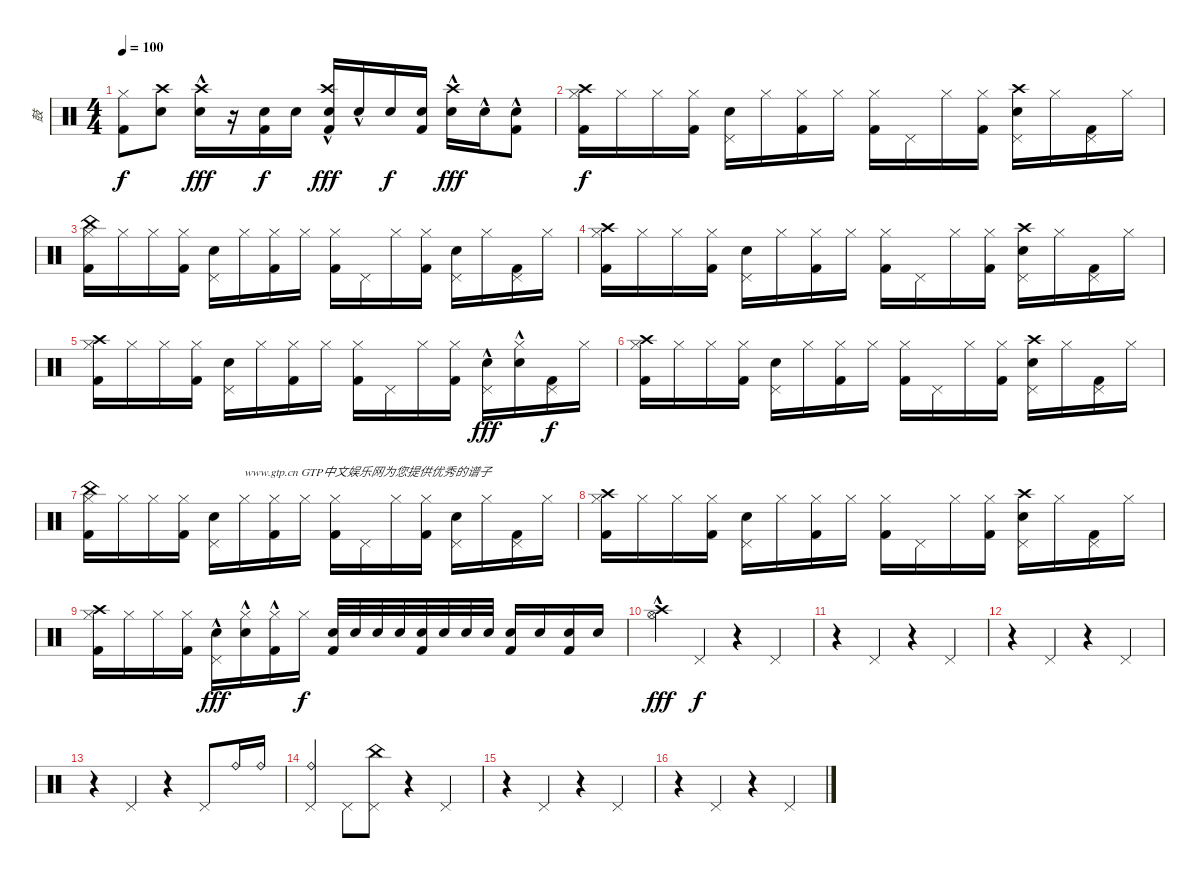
\track ("鼓" "鼓") {instrument percussion}
\staff {score}
\articulation defaults
\ts (4 4)
\tempo 100
\clef neutral
\ks c
("Hi-Hat (closed)" "Kick (hit) 2").8{dy f} ("Crash high (hit)" "Electric Snare (hit)").8 ("Crash high (hit)" "Electric Snare (hit)"{hac}).16{dy fff} r.16 ("Electric Snare (hit)" "Kick (hit) 2").16{dy f} "Electric Snare (hit)".16 ("Crash high (hit)" "Electric Snare (hit)"{hac} "Kick (hit) 2").16{dy fff} "Electric Snare (hit)"{hac}.16 "Snare (hit) 2".16{dy f} ("Electric Snare (hit)" "Kick (hit) 2").16 ("Crash high (hit)" "Electric Snare (hit)"{hac}).16{dy fff} "Snare (hit) 2"{hac}.16 ("Snare (hit) 2"{hac} "Kick (hit) 2").8 |
("Crash high (hit)" "Hi-Hat (closed)" "Kick (hit) 2").16{dy f} "Hi-Hat (closed)".16 "Hi-Hat (closed)".16 ("Hi-Hat (closed)" "Kick (hit) 2").16 ("Pedal Hi-Hat (hit)" "Electric Snare (hit)").16 "Hi-Hat (closed)".16 ("Hi-Hat (closed)" "Kick (hit) 2").16 "Hi-Hat (closed)".16 ("Hi-Hat (closed)" "Kick (hit) 2").16 "Pedal Hi-Hat (hit)".16 "Hi-Hat (closed)".16 ("Hi-Hat (closed)" "Kick (hit) 2").16 ("Crash high (hit)" "Pedal Hi-Hat (hit)" "Electric Snare (hit)").16 "Hi-Hat (closed)".16 ("Pedal Hi-Hat (hit)" "Kick (hit) 2").16 "Hi-Hat (closed)".16 |
("China (hit)" "Hi-Hat (closed)" "Kick (hit) 2").16 "Hi-Hat (closed)".16 "Hi-Hat (closed)".16 ("Hi-Hat (closed)" "Kick (hit) 2").16 ("Pedal Hi-Hat (hit)" "Electric Snare (hit)").16 "Hi-Hat (closed)".16 ("Hi-Hat (closed)" "Kick (hit) 2").16 "Hi-Hat (closed)".16 ("Hi-Hat (closed)" "Kick (hit) 2").16 "Pedal Hi-Hat (hit)".16 "Hi-Hat (closed)".16 ("Hi-Hat (closed)" "Kick (hit) 2").16 ("Pedal Hi-Hat (hit)" "Electric Snare (hit)").16 "Hi-Hat (closed)".16 ("Pedal Hi-Hat (hit)" "Kick (hit) 2").16 "Hi-Hat (closed)".16 |
("Crash high (hit)" "Hi-Hat (closed)" "Kick (hit) 2").16 "Hi-Hat (closed)".16 "Hi-Hat (closed)".16 ("Hi-Hat (closed)" "Kick (hit) 2").16 ("Pedal Hi-Hat (hit)" "Electric Snare (hit)").16 "Hi-Hat (closed)".16 ("Hi-Hat (closed)" "Kick (hit) 2").16 "Hi-Hat (closed)".16 ("Hi-Hat (closed)" "Kick (hit) 2").16 "Pedal Hi-Hat (hit)".16 "Hi-Hat (closed)".16 ("Hi-Hat (closed)" "Kick (hit) 2").16 ("Crash high (hit)" "Pedal Hi-Hat (hit)" "Electric Snare (hit)").16 "Hi-Hat (closed)".16 ("Pedal Hi-Hat (hit)" "Kick (hit) 2").16 "Hi-Hat (closed)".16 |
("Crash high (hit)" "Hi-Hat (closed)" "Kick (hit) 2").16 "Hi-Hat (closed)".16 "Hi-Hat (closed)".16 ("Hi-Hat (closed)" "Kick (hit) 2").16 ("Pedal Hi-Hat (hit)" "Electric Snare (hit)").16 "Hi-Hat (closed)".16 ("Hi-Hat (closed)" "Kick (hit) 2").16 "Hi-Hat (closed)".16 ("Hi-Hat (closed)" "Kick (hit) 2").16 "Pedal Hi-Hat (hit)".16 "Hi-Hat (closed)".16 ("Hi-Hat (closed)" "Kick (hit) 2").16 ("Pedal Hi-Hat (hit)" "Electric Snare (hit)"{hac}).16{dy fff} ("Hi-Hat (closed)" "Electric Snare (hit)"{hac}).16 ("Pedal Hi-Hat (hit)" "Kick (hit) 2").16{dy f} "Hi-Hat (closed)".16 |
("Crash high (hit)" "Hi-Hat (closed)" "Kick (hit) 2").16 "Hi-Hat (closed)".16 "Hi-Hat (closed)".16 ("Hi-Hat (closed)" "Kick (hit) 2").16 ("Pedal Hi-Hat (hit)" "Electric Snare (hit)").16 "Hi-Hat (closed)".16 ("Hi-Hat (closed)" "Kick (hit) 2").16 "Hi-Hat (closed)".16 ("Hi-Hat (closed)" "Kick (hit) 2").16 "Pedal Hi-Hat (hit)".16 "Hi-Hat (closed)".16 ("Hi-Hat (closed)" "Kick (hit) 2").16 ("Crash high (hit)" "Pedal Hi-Hat (hit)" "Electric Snare (hit)").16 "Hi-Hat (closed)".16 ("Pedal Hi-Hat (hit)" "Kick (hit) 2").16 "Hi-Hat (closed)".16 |
("China (hit)" "Hi-Hat (closed)" "Kick (hit) 2").16 "Hi-Hat (closed)".16 "Hi-Hat (closed)".16 ("Hi-Hat (closed)" "Kick (hit) 2").16 ("Pedal Hi-Hat (hit)" "Electric Snare (hit)").16 "Hi-Hat (closed)".16{txt "www.gtp.cn GTP中文娱乐网为您提供优秀的谱子"} ("Hi-Hat (closed)" "Kick (hit) 2").16 "Hi-Hat (closed)".16 ("Hi-Hat (closed)" "Kick (hit) 2").16 "Pedal Hi-Hat (hit)".16 "Hi-Hat (closed)".16 ("Hi-Hat (closed)" "Kick (hit) 2").16 ("Pedal Hi-Hat (hit)" "Electric Snare (hit)").16 "Hi-Hat (closed)".16 ("Pedal Hi-Hat (hit)" "Kick (hit) 2").16 "Hi-Hat (closed)".16 |
("Crash high (hit)" "Hi-Hat (closed)" "Kick (hit) 2").16 "Hi-Hat (closed)".16 "Hi-Hat (closed)".16 ("Hi-Hat (closed)" "Kick (hit) 2").16 ("Pedal Hi-Hat (hit)" "Electric Snare (hit)").16 "Hi-Hat (closed)".16 ("Hi-Hat (closed)" "Kick (hit) 2").16 "Hi-Hat (closed)".16 ("Hi-Hat (closed)" "Kick (hit) 2").16 "Pedal Hi-Hat (hit)".16 "Hi-Hat (closed)".16 ("Hi-Hat (closed)" "Kick (hit) 2").16 ("Crash high (hit)" "Pedal Hi-Hat (hit)" "Electric Snare (hit)").16 "Hi-Hat (closed)".16 ("Pedal Hi-Hat (hit)" "Kick (hit) 2").16 "Hi-Hat (closed)".16 |
("Crash high (hit)" "Hi-Hat (closed)" "Kick (hit) 2").16 "Hi-Hat (closed)".16 "Hi-Hat (closed)".16 ("Hi-Hat (closed)" "Kick (hit) 2").16 ("Pedal Hi-Hat (hit)" "Electric Snare (hit)"{hac}).16{dy fff} ("Hi-Hat (closed)" "Electric Snare (hit)"{hac}).16 ("Hi-Hat (closed)" "Kick (hit) 2"{hac}).16 "Hi-Hat (closed)".16{dy f} ("Electric Snare (hit)" "Kick (hit) 2").32 "Electric Snare (hit)".32 "Electric Snare (hit)".32 "Electric Snare (hit)".32 ("Electric Snare (hit)" "Kick (hit) 2").32 "Electric Snare (hit)".32 "Snare (hit) 2".32 "Snare (hit) 2".32 ("Snare (hit) 2" "Kick (hit) 2").16 "Snare (hit) 2".16 ("Snare (hit) 2" "Kick (hit) 2").16 "Snare (hit) 2".16 |
("Crash high (hit)"{hac} "Hi-Hat (open)"{hac}).4{dy fff} "Pedal Hi-Hat (hit)".4{dy f} r.4 "Pedal Hi-Hat (hit)".4 |
r.4 "Pedal Hi-Hat (hit)".4 r.4 "Pedal Hi-Hat (hit)".4 |
r.4 "Pedal Hi-Hat (hit)".4 r.4 "Pedal Hi-Hat (hit)".4 |
r.4 "Pedal Hi-Hat (hit)".4 r.4 "Pedal Hi-Hat (hit)".8 "Ride (bell)".16 "Ride (bell)".16 |
("Ride (bell)" "Pedal Hi-Hat (hit)").4 "Pedal Hi-Hat (hit)".8 ("China (hit)" "Pedal Hi-Hat (hit)").8 r.4 "Pedal Hi-Hat (hit)".4 |
r.4 "Pedal Hi-Hat (hit)".4 r.4 "Pedal Hi-Hat (hit)".4 |
r.4 "Pedal Hi-Hat (hit)".4 r.4 "Pedal Hi-Hat (hit)".4
